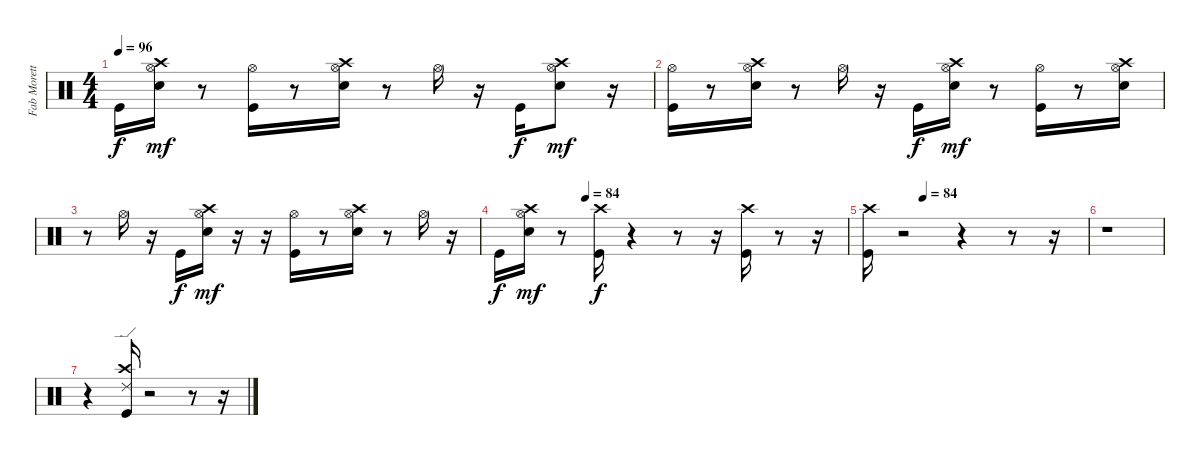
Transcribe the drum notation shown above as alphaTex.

\track ("Fab Moretti" "Fab Morett") {instrument percussion}
\staff {score}
\articulation defaults
\ts (4 4)
\tempo 96
\clef neutral
\ks c "Kick (hit)".16{dy f}
("Electric Snare (hit)" "Crash high (hit)" "Hi-Hat (open)").16{dy mf} r.8 ("Kick (hit)" "Hi-Hat (open)").16 r.8 ("Electric Snare (hit)" "Crash high (hit)" "Hi-Hat (open)").16 r.8 "Hi-Hat (open)".16 r.16 "Kick (hit)".16{dy f} ("Crash high (hit)" "Electric Snare (hit)" "Hi-Hat (open)").8{dy mf} r.16 |
("Kick (hit)" "Hi-Hat (open)").16 r.8 ("Crash high (hit)" "Electric Snare (hit)" "Hi-Hat (open)").16 r.8 "Hi-Hat (open)".16 r.16 "Kick (hit)".16{dy f} ("Electric Snare (hit)" "Crash high (hit)" "Hi-Hat (open)").16{dy mf} r.8 ("Kick (hit)" "Hi-Hat (open)").16 r.8 ("Electric Snare (hit)" "Crash high (hit)" "Hi-Hat (open)").16 |
r.8 "Hi-Hat (open)".16 r.16 "Kick (hit)".16{dy f} ("Electric Snare (hit)" "Crash high (hit)" "Hi-Hat (open)").16{dy mf} r.16 r.16 ("Kick (hit)" "Hi-Hat (open)").16 r.8 ("Electric Snare (hit)" "Crash high (hit)" "Hi-Hat (open)").16 r.8 "Hi-Hat (open)".16 r.16 |
\tempo (84 0.25)
"Kick (hit)".16{dy f} ("Electric Snare (hit)" "Crash high (hit)" "Hi-Hat (open)").16{dy mf} r.8 ("Kick (hit)" "Crash high (hit)").16{dy f} r.4 r.8 r.16 ("Kick (hit)" "Crash high (hit)").16 r.8 r.16 |
\tempo (84 0.25)
("Kick (hit)" "Crash high (hit)").16 r.2 r.4 r.8 r.16 |
r.1 |
r.4 ("Kick (hit)" "Crash high (hit)" "Ride (edge) 2").16 r.2 r.8 r.16
